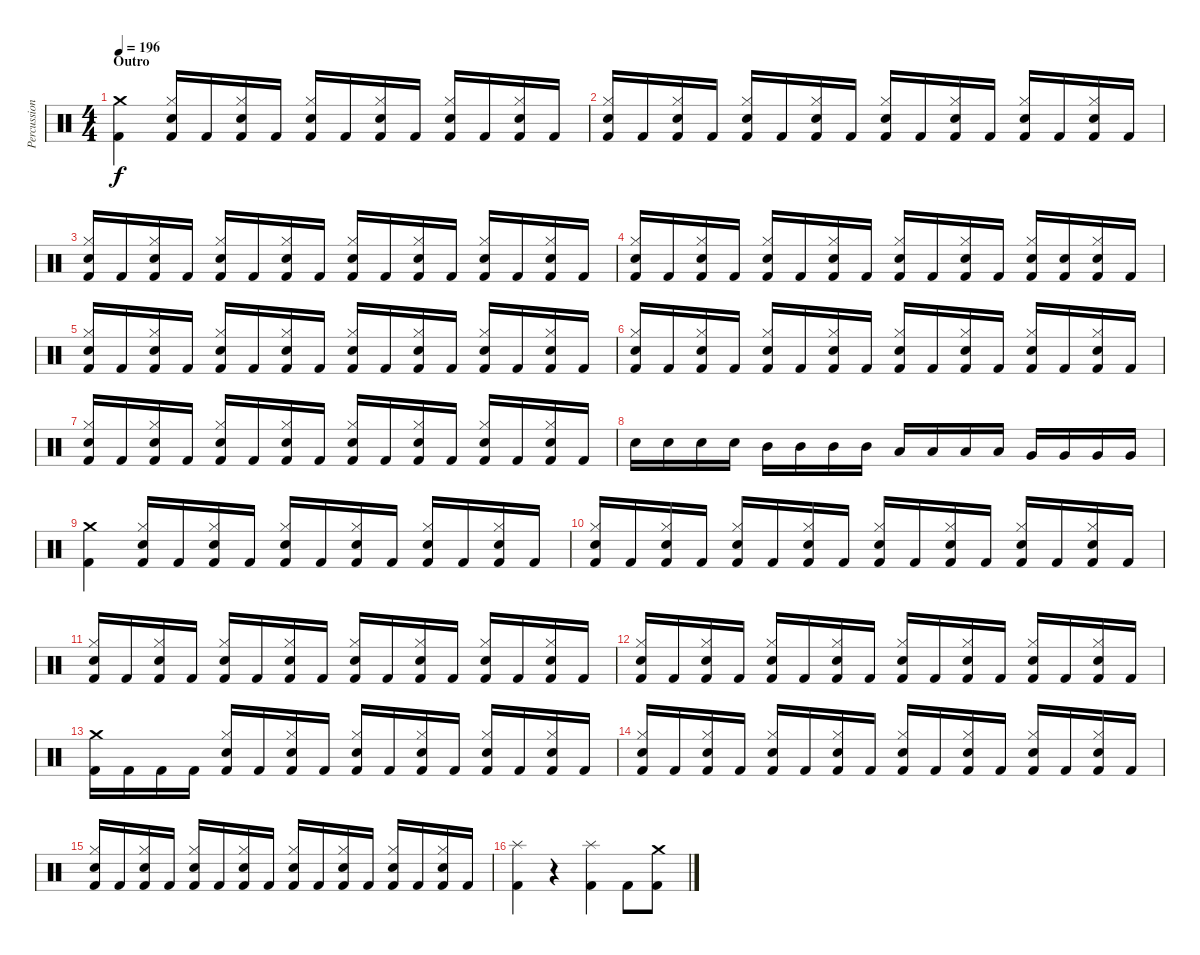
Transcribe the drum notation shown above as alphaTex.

\track ("Percussion" "Percussion") {instrument percussion}
\staff {score}
\articulation defaults
\ts (4 4)
\section ("" "Outro")
\tempo 196
\clef neutral
\ks c
("Crash medium (hit)" "Kick (hit) 2").4{dy f} ("Hi-Hat (closed)" "Electric Snare (hit)" "Kick (hit) 2").16 "Kick (hit) 2".16 ("Hi-Hat (closed)" "Electric Snare (hit)" "Kick (hit) 2").16 "Kick (hit) 2".16 ("Hi-Hat (closed)" "Electric Snare (hit)" "Kick (hit) 2").16 "Kick (hit) 2".16 ("Hi-Hat (closed)" "Electric Snare (hit)" "Kick (hit) 2").16 "Kick (hit) 2".16 ("Hi-Hat (closed)" "Electric Snare (hit)" "Kick (hit) 2").16 "Kick (hit) 2".16 ("Hi-Hat (closed)" "Electric Snare (hit)" "Kick (hit) 2").16 "Kick (hit) 2".16 |
("Hi-Hat (closed)" "Electric Snare (hit)" "Kick (hit) 2").16 "Kick (hit) 2".16 ("Hi-Hat (closed)" "Electric Snare (hit)" "Kick (hit) 2").16 "Kick (hit) 2".16 ("Hi-Hat (closed)" "Electric Snare (hit)" "Kick (hit) 2").16 "Kick (hit) 2".16 ("Hi-Hat (closed)" "Electric Snare (hit)" "Kick (hit) 2").16 "Kick (hit) 2".16 ("Hi-Hat (closed)" "Electric Snare (hit)" "Kick (hit) 2").16 "Kick (hit) 2".16 ("Hi-Hat (closed)" "Electric Snare (hit)" "Kick (hit) 2").16 "Kick (hit) 2".16 ("Hi-Hat (closed)" "Electric Snare (hit)" "Kick (hit) 2").16 "Kick (hit) 2".16 ("Hi-Hat (closed)" "Electric Snare (hit)" "Kick (hit) 2").16 "Kick (hit) 2".16 |
("Hi-Hat (closed)" "Electric Snare (hit)" "Kick (hit) 2").16 "Kick (hit) 2".16 ("Hi-Hat (closed)" "Electric Snare (hit)" "Kick (hit) 2").16 "Kick (hit) 2".16 ("Hi-Hat (closed)" "Electric Snare (hit)" "Kick (hit) 2").16 "Kick (hit) 2".16 ("Hi-Hat (closed)" "Electric Snare (hit)" "Kick (hit) 2").16 "Kick (hit) 2".16 ("Hi-Hat (closed)" "Electric Snare (hit)" "Kick (hit) 2").16 "Kick (hit) 2".16 ("Hi-Hat (closed)" "Electric Snare (hit)" "Kick (hit) 2").16 "Kick (hit) 2".16 ("Hi-Hat (closed)" "Electric Snare (hit)" "Kick (hit) 2").16 "Kick (hit) 2".16 ("Hi-Hat (closed)" "Electric Snare (hit)" "Kick (hit) 2").16 "Kick (hit) 2".16 |
("Hi-Hat (closed)" "Electric Snare (hit)" "Kick (hit) 2").16 "Kick (hit) 2".16 ("Hi-Hat (closed)" "Electric Snare (hit)" "Kick (hit) 2").16 "Kick (hit) 2".16 ("Hi-Hat (closed)" "Electric Snare (hit)" "Kick (hit) 2").16 "Kick (hit) 2".16 ("Hi-Hat (closed)" "Electric Snare (hit)" "Kick (hit) 2").16 "Kick (hit) 2".16 ("Hi-Hat (closed)" "Electric Snare (hit)" "Kick (hit) 2").16 "Kick (hit) 2".16 ("Hi-Hat (closed)" "Electric Snare (hit)" "Kick (hit) 2").16 "Kick (hit) 2".16 ("Hi-Hat (closed)" "Electric Snare (hit)" "Kick (hit) 2").16 ("Electric Snare (hit)" "Kick (hit) 2").16 ("Hi-Hat (closed)" "Electric Snare (hit)" "Kick (hit) 2").16 "Kick (hit) 2".16 |
("Hi-Hat (closed)" "Electric Snare (hit)" "Kick (hit) 2").16 "Kick (hit) 2".16 ("Hi-Hat (closed)" "Electric Snare (hit)" "Kick (hit) 2").16 "Kick (hit) 2".16 ("Hi-Hat (closed)" "Electric Snare (hit)" "Kick (hit) 2").16 "Kick (hit) 2".16 ("Hi-Hat (closed)" "Electric Snare (hit)" "Kick (hit) 2").16 "Kick (hit) 2".16 ("Hi-Hat (closed)" "Electric Snare (hit)" "Kick (hit) 2").16 "Kick (hit) 2".16 ("Hi-Hat (closed)" "Electric Snare (hit)" "Kick (hit) 2").16 "Kick (hit) 2".16 ("Hi-Hat (closed)" "Electric Snare (hit)" "Kick (hit) 2").16 "Kick (hit) 2".16 ("Hi-Hat (closed)" "Electric Snare (hit)" "Kick (hit) 2").16 "Kick (hit) 2".16 |
("Hi-Hat (closed)" "Electric Snare (hit)" "Kick (hit) 2").16 "Kick (hit) 2".16 ("Hi-Hat (closed)" "Electric Snare (hit)" "Kick (hit) 2").16 "Kick (hit) 2".16 ("Hi-Hat (closed)" "Electric Snare (hit)" "Kick (hit) 2").16 "Kick (hit) 2".16 ("Hi-Hat (closed)" "Electric Snare (hit)" "Kick (hit) 2").16 "Kick (hit) 2".16 ("Hi-Hat (closed)" "Electric Snare (hit)" "Kick (hit) 2").16 "Kick (hit) 2".16 ("Hi-Hat (closed)" "Electric Snare (hit)" "Kick (hit) 2").16 "Kick (hit) 2".16 ("Hi-Hat (closed)" "Electric Snare (hit)" "Kick (hit) 2").16 "Kick (hit) 2".16 ("Hi-Hat (closed)" "Electric Snare (hit)" "Kick (hit) 2").16 "Kick (hit) 2".16 |
("Hi-Hat (closed)" "Electric Snare (hit)" "Kick (hit) 2").16 "Kick (hit) 2".16 ("Hi-Hat (closed)" "Electric Snare (hit)" "Kick (hit) 2").16 "Kick (hit) 2".16 ("Hi-Hat (closed)" "Electric Snare (hit)" "Kick (hit) 2").16 "Kick (hit) 2".16 ("Hi-Hat (closed)" "Electric Snare (hit)" "Kick (hit) 2").16 "Kick (hit) 2".16 ("Hi-Hat (closed)" "Electric Snare (hit)" "Kick (hit) 2").16 "Kick (hit) 2".16 ("Hi-Hat (closed)" "Electric Snare (hit)" "Kick (hit) 2").16 "Kick (hit) 2".16 ("Hi-Hat (closed)" "Electric Snare (hit)" "Kick (hit) 2").16 "Kick (hit) 2".16 ("Hi-Hat (closed)" "Electric Snare (hit)" "Kick (hit) 2").16 "Kick (hit) 2".16 |
"Electric Snare (hit)".16 "Electric Snare (hit)".16 "Electric Snare (hit)".16 "Electric Snare (hit)".16 "Mid Tom (hit)".16 "Mid Tom (hit)".16 "Mid Tom (hit)".16 "Mid Tom (hit)".16 "Low Tom (hit)".16 "Low Tom (hit)".16 "Low Tom (hit)".16 "Low Tom (hit)".16 "Very Low Tom (hit)".16 "Very Low Tom (hit)".16 "Very Low Tom (hit)".16 "Very Low Tom (hit)".16 |
("Crash medium (hit)" "Kick (hit) 2").4 ("Hi-Hat (closed)" "Electric Snare (hit)" "Kick (hit) 2").16 "Kick (hit) 2".16 ("Hi-Hat (closed)" "Electric Snare (hit)" "Kick (hit) 2").16 "Kick (hit) 2".16 ("Hi-Hat (closed)" "Electric Snare (hit)" "Kick (hit) 2").16 "Kick (hit) 2".16 ("Hi-Hat (closed)" "Electric Snare (hit)" "Kick (hit) 2").16 "Kick (hit) 2".16 ("Hi-Hat (closed)" "Electric Snare (hit)" "Kick (hit) 2").16 "Kick (hit) 2".16 ("Hi-Hat (closed)" "Electric Snare (hit)" "Kick (hit) 2").16 "Kick (hit) 2".16 |
("Hi-Hat (closed)" "Electric Snare (hit)" "Kick (hit) 2").16 "Kick (hit) 2".16 ("Hi-Hat (closed)" "Electric Snare (hit)" "Kick (hit) 2").16 "Kick (hit) 2".16 ("Hi-Hat (closed)" "Electric Snare (hit)" "Kick (hit) 2").16 "Kick (hit) 2".16 ("Hi-Hat (closed)" "Electric Snare (hit)" "Kick (hit) 2").16 "Kick (hit) 2".16 ("Hi-Hat (closed)" "Electric Snare (hit)" "Kick (hit) 2").16 "Kick (hit) 2".16 ("Hi-Hat (closed)" "Electric Snare (hit)" "Kick (hit) 2").16 "Kick (hit) 2".16 ("Hi-Hat (closed)" "Electric Snare (hit)" "Kick (hit) 2").16 "Kick (hit) 2".16 ("Hi-Hat (closed)" "Electric Snare (hit)" "Kick (hit) 2").16 "Kick (hit) 2".16 |
("Hi-Hat (closed)" "Electric Snare (hit)" "Kick (hit) 2").16 "Kick (hit) 2".16 ("Hi-Hat (closed)" "Electric Snare (hit)" "Kick (hit) 2").16 "Kick (hit) 2".16 ("Hi-Hat (closed)" "Electric Snare (hit)" "Kick (hit) 2").16 "Kick (hit) 2".16 ("Hi-Hat (closed)" "Electric Snare (hit)" "Kick (hit) 2").16 "Kick (hit) 2".16 ("Hi-Hat (closed)" "Electric Snare (hit)" "Kick (hit) 2").16 "Kick (hit) 2".16 ("Hi-Hat (closed)" "Electric Snare (hit)" "Kick (hit) 2").16 "Kick (hit) 2".16 ("Hi-Hat (closed)" "Electric Snare (hit)" "Kick (hit) 2").16 "Kick (hit) 2".16 ("Hi-Hat (closed)" "Electric Snare (hit)" "Kick (hit) 2").16 "Kick (hit) 2".16 |
("Hi-Hat (closed)" "Electric Snare (hit)" "Kick (hit) 2").16 "Kick (hit) 2".16 ("Hi-Hat (closed)" "Electric Snare (hit)" "Kick (hit) 2").16 "Kick (hit) 2".16 ("Hi-Hat (closed)" "Electric Snare (hit)" "Kick (hit) 2").16 "Kick (hit) 2".16 ("Hi-Hat (closed)" "Electric Snare (hit)" "Kick (hit) 2").16 "Kick (hit) 2".16 ("Hi-Hat (closed)" "Electric Snare (hit)" "Kick (hit) 2").16 "Kick (hit) 2".16 ("Hi-Hat (closed)" "Electric Snare (hit)" "Kick (hit) 2").16 "Kick (hit) 2".16 ("Hi-Hat (closed)" "Electric Snare (hit)" "Kick (hit) 2").16 "Kick (hit) 2".16 ("Hi-Hat (closed)" "Electric Snare (hit)" "Kick (hit) 2").16 "Kick (hit) 2".16 |
("Crash medium (hit)" "Kick (hit) 2").16 "Kick (hit) 2".16 "Kick (hit) 2".16 "Kick (hit) 2".16 ("Hi-Hat (closed)" "Electric Snare (hit)" "Kick (hit) 2").16 "Kick (hit) 2".16 ("Hi-Hat (closed)" "Electric Snare (hit)" "Kick (hit) 2").16 "Kick (hit) 2".16 ("Hi-Hat (closed)" "Electric Snare (hit)" "Kick (hit) 2").16 "Kick (hit) 2".16 ("Hi-Hat (closed)" "Electric Snare (hit)" "Kick (hit) 2").16 "Kick (hit) 2".16 ("Hi-Hat (closed)" "Electric Snare (hit)" "Kick (hit) 2").16 "Kick (hit) 2".16 ("Hi-Hat (closed)" "Electric Snare (hit)" "Kick (hit) 2").16 "Kick (hit) 2".16 |
("Hi-Hat (closed)" "Electric Snare (hit)" "Kick (hit) 2").16 "Kick (hit) 2".16 ("Hi-Hat (closed)" "Electric Snare (hit)" "Kick (hit) 2").16 "Kick (hit) 2".16 ("Hi-Hat (closed)" "Electric Snare (hit)" "Kick (hit) 2").16 "Kick (hit) 2".16 ("Hi-Hat (closed)" "Electric Snare (hit)" "Kick (hit) 2").16 "Kick (hit) 2".16 ("Hi-Hat (closed)" "Electric Snare (hit)" "Kick (hit) 2").16 "Kick (hit) 2".16 ("Hi-Hat (closed)" "Electric Snare (hit)" "Kick (hit) 2").16 "Kick (hit) 2".16 ("Hi-Hat (closed)" "Electric Snare (hit)" "Kick (hit) 2").16 "Kick (hit) 2".16 ("Hi-Hat (closed)" "Electric Snare (hit)" "Kick (hit) 2").16 "Kick (hit) 2".16 |
("Hi-Hat (closed)" "Electric Snare (hit)" "Kick (hit) 2").16 "Kick (hit) 2".16 ("Hi-Hat (closed)" "Electric Snare (hit)" "Kick (hit) 2").16 "Kick (hit) 2".16 ("Hi-Hat (closed)" "Electric Snare (hit)" "Kick (hit) 2").16 "Kick (hit) 2".16 ("Hi-Hat (closed)" "Electric Snare (hit)" "Kick (hit) 2").16 "Kick (hit) 2".16 ("Hi-Hat (closed)" "Electric Snare (hit)" "Kick (hit) 2").16 "Kick (hit) 2".16 ("Hi-Hat (closed)" "Electric Snare (hit)" "Kick (hit) 2").16 "Kick (hit) 2".16 ("Hi-Hat (closed)" "Electric Snare (hit)" "Kick (hit) 2").16 "Kick (hit) 2".16 ("Hi-Hat (closed)" "Electric Snare (hit)" "Kick (hit) 2").16 "Kick (hit) 2".16 |
("Splash (hit)" "Kick (hit) 2").4 r.4 ("Splash (hit)" "Kick (hit) 2").4 "Kick (hit) 2".8 ("Crash medium (hit)" "Kick (hit) 2").8
